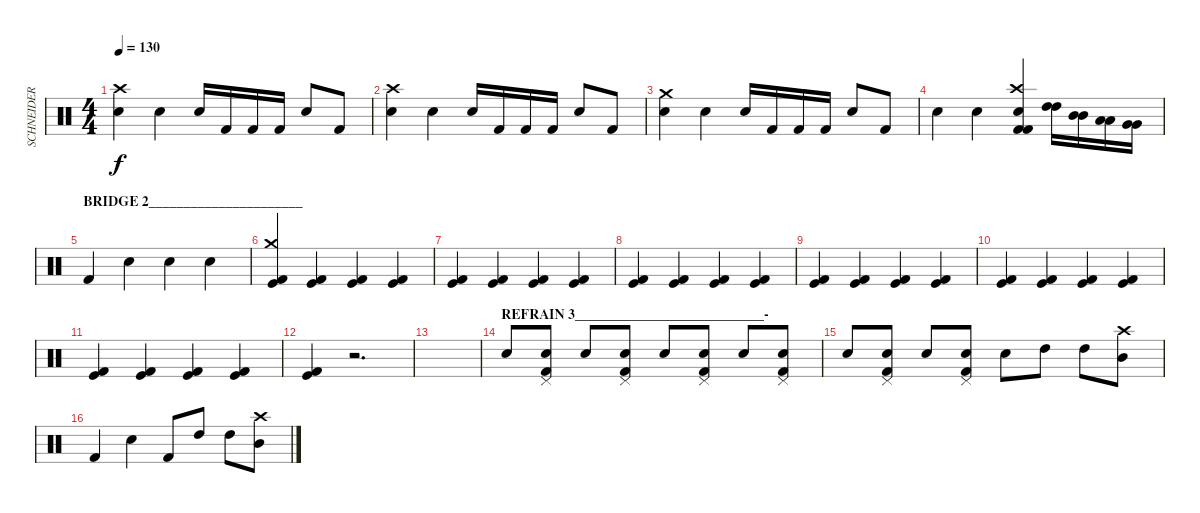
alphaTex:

\track ("SCHNEIDER - Drums" "SCHNEIDER ") {instrument percussion}
\staff {score}
\articulation defaults
\ts (4 4)
\tempo 130
\clef neutral
\ks c
("Snare (hit) 2" "Crash high (hit)").4{dy f} "Snare (hit) 2".4 "Snare (hit) 2".16 "Kick (hit) 2".16 "Kick (hit) 2".16 "Kick (hit) 2".16 "Snare (hit) 2".8 "Kick (hit) 2".8 |
("Snare (hit) 2" "Crash high (hit)").4 "Snare (hit) 2".4 "Snare (hit) 2".16 "Kick (hit) 2".16 "Kick (hit) 2".16 "Kick (hit) 2".16 "Snare (hit) 2".8 "Kick (hit) 2".8 |
("Snare (hit) 2" "Crash medium (hit)").4 "Snare (hit) 2".4 "Snare (hit) 2".16 "Kick (hit) 2".16 "Kick (hit) 2".16 "Kick (hit) 2".16 "Snare (hit) 2".8 "Kick (hit) 2".8 |
"Snare (hit) 2".4 "Snare (hit) 2".4 ("Crash high (hit)" "Snare (hit) 2" "Kick (hit) 2" "Kick (hit) 2").4 ("High Tom (hit)" "High Tom (hit)").16 ("Mid Tom (hit)" "Mid Tom (hit)").16 ("Low Tom (hit)" "Low Tom (hit)").16 ("Very Low Tom (hit)" "Very Low Tom (hit)").16 |
\section ("" "BRIDGE 2______________________")
"Kick (hit) 2".4 "Snare (hit) 2".4 "Snare (hit) 2".4 "Snare (hit) 2".4 |
("Crash medium (hit)" "Kick (hit)" "Kick (hit) 2").4 ("Kick (hit)" "Kick (hit) 2").4 ("Kick (hit)" "Kick (hit) 2").4 ("Kick (hit)" "Kick (hit) 2").4 |
("Kick (hit)" "Kick (hit) 2").4 ("Kick (hit)" "Kick (hit) 2").4 ("Kick (hit)" "Kick (hit) 2").4 ("Kick (hit)" "Kick (hit) 2").4 |
("Kick (hit)" "Kick (hit) 2").4 ("Kick (hit)" "Kick (hit) 2").4 ("Kick (hit)" "Kick (hit) 2").4 ("Kick (hit)" "Kick (hit) 2").4 |
("Kick (hit)" "Kick (hit) 2").4 ("Kick (hit)" "Kick (hit) 2").4 ("Kick (hit)" "Kick (hit) 2").4 ("Kick (hit)" "Kick (hit) 2").4 |
("Kick (hit)" "Kick (hit) 2").4 ("Kick (hit)" "Kick (hit) 2").4 ("Kick (hit)" "Kick (hit) 2").4 ("Kick (hit)" "Kick (hit) 2").4 |
("Kick (hit)" "Kick (hit) 2").4 ("Kick (hit)" "Kick (hit) 2").4 ("Kick (hit)" "Kick (hit) 2").4 ("Kick (hit)" "Kick (hit) 2").4 |
("Kick (hit)" "Kick (hit) 2").4 r.2{d} |
|
\section ("" "REFRAIN 3___________________________-")
"Snare (hit) 2".8 ("Snare (hit) 2" "Kick (hit) 2" "Pedal Hi-Hat (hit)").8 "Snare (hit) 2".8 ("Snare (hit) 2" "Kick (hit) 2" "Pedal Hi-Hat (hit)").8 "Snare (hit) 2".8 ("Snare (hit) 2" "Kick (hit) 2" "Pedal Hi-Hat (hit)").8 "Snare (hit) 2".8 ("Snare (hit) 2" "Kick (hit) 2" "Pedal Hi-Hat (hit)").8 |
"Snare (hit) 2".8 ("Snare (hit) 2" "Kick (hit) 2" "Pedal Hi-Hat (hit)").8 "Snare (hit) 2".8 ("Snare (hit) 2" "Kick (hit) 2" "Pedal Hi-Hat (hit)").8 "Snare (hit) 2".8 "High Tom (hit)".8 "High Tom (hit)".8 ("Mid Tom (hit)" "Crash high (hit)").8 |
"Kick (hit) 2".4 "Snare (hit) 2".4 "Kick (hit) 2".8 "High Tom (hit)".8 "High Tom (hit)".8 ("Mid Tom (hit)" "Crash high (hit)").8
